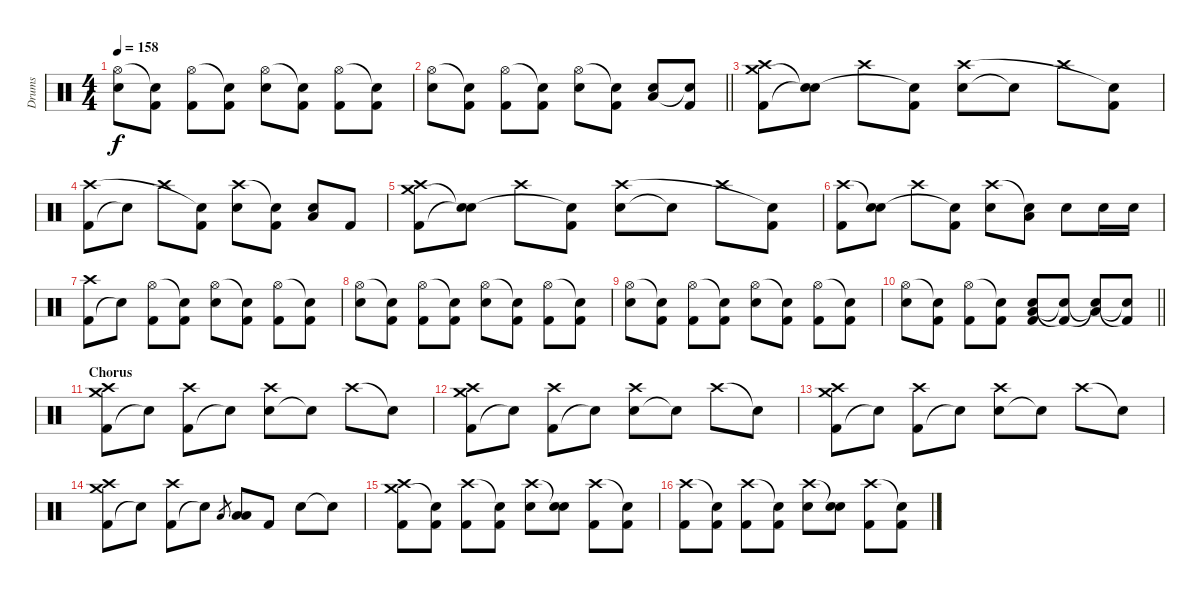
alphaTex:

\track ("Drums" "Drums") {instrument percussion}
\staff {score}
\articulation defaults
\ts (4 4)
\tempo 158
\clef neutral
\ks c
("Electric Snare (hit)" "Hi-Hat (open)").8{dy f} ("Kick (hit) 2" "Snare (hit)"{t}).8 ("Kick (hit) 2" "Hi-Hat (open)").8 ("Kick (hit) 2" "Snare (hit)"{t}).8 ("Electric Snare (hit)" "Hi-Hat (open)").8 ("Kick (hit) 2" "Snare (hit)"{t}).8 ("Kick (hit) 2" "Hi-Hat (open)").8 ("Kick (hit) 2" "Snare (hit)"{t}).8 |
\barLineRight lightlight
("Electric Snare (hit)" "Hi-Hat (open)").8 ("Kick (hit) 2" "Snare (hit)"{t}).8 ("Kick (hit) 2" "Hi-Hat (open)").8 ("Kick (hit) 2" "Snare (hit)"{t}).8 ("Electric Snare (hit)" "Hi-Hat (open)").8 ("Kick (hit) 2" "Snare (hit)"{t}).8 ("Electric Snare (hit)" "Low Floor Tom (hit)").8 ("Kick (hit) 2" "Snare (hit)"{t}).8 |
("Kick (hit) 2" "Crash medium (hit)" "Crash high (hit)").8 ("Snare (hit)"{t} "Snare (hit)"{t}).8 "Crash high (hit)".8 ("Kick (hit) 2" "Snare (hit)"{t}).8 ("Electric Snare (hit)" "Crash high (hit)").8 "Snare (hit)"{t}.8 "Crash high (hit)".8 ("Kick (hit) 2" "Snare (hit)"{t}).8 |
("Kick (hit) 2" "Crash high (hit)").8 "Snare (hit)"{t}.8 "Crash high (hit)".8 ("Kick (hit) 2" "Snare (hit)"{t}).8 ("Electric Snare (hit)" "Crash high (hit)").8 ("Kick (hit) 2" "Snare (hit)"{t}).8 ("Electric Snare (hit)" "Low Floor Tom (hit)").8 "Kick (hit) 2".8 |
("Kick (hit) 2" "Crash medium (hit)" "Crash high (hit)").8 ("Snare (hit)"{t} "Snare (hit)"{t}).8 "Crash high (hit)".8 ("Kick (hit) 2" "Snare (hit)"{t}).8 ("Electric Snare (hit)" "Crash high (hit)").8 "Snare (hit)"{t}.8 "Crash high (hit)".8 ("Kick (hit) 2" "Snare (hit)"{t}).8 |
("Kick (hit) 2" "Crash high (hit)").8 ("Electric Snare (hit)" "Snare (hit)"{t}).8 "Crash high (hit)".8 ("Kick (hit) 2" "Snare (hit)"{t}).8 ("Electric Snare (hit)" "Crash high (hit)").8 ("Low Tom (hit)" "Snare (hit)"{t}).8 "Electric Snare (hit)".8 "Electric Snare (hit)".16 "Electric Snare (hit)".16 |
("Kick (hit) 2" "Crash high (hit)").8 "Snare (hit)"{t}.8 ("Kick (hit) 2" "Hi-Hat (open)").8 ("Kick (hit) 2" "Snare (hit)"{t}).8 ("Electric Snare (hit)" "Hi-Hat (open)").8 ("Kick (hit) 2" "Snare (hit)"{t}).8 ("Kick (hit) 2" "Hi-Hat (open)").8 ("Kick (hit) 2" "Snare (hit)"{t}).8 |
("Electric Snare (hit)" "Hi-Hat (open)").8 ("Kick (hit) 2" "Snare (hit)"{t}).8 ("Kick (hit) 2" "Hi-Hat (open)").8 ("Kick (hit) 2" "Snare (hit)"{t}).8 ("Electric Snare (hit)" "Hi-Hat (open)").8 ("Kick (hit) 2" "Snare (hit)"{t}).8 ("Kick (hit) 2" "Hi-Hat (open)").8 ("Kick (hit) 2" "Snare (hit)"{t}).8 |
("Electric Snare (hit)" "Hi-Hat (open)").8 ("Kick (hit) 2" "Snare (hit)"{t}).8 ("Kick (hit) 2" "Hi-Hat (open)").8 ("Kick (hit) 2" "Snare (hit)"{t}).8 ("Electric Snare (hit)" "Hi-Hat (open)").8 ("Kick (hit) 2" "Snare (hit)"{t}).8 ("Kick (hit) 2" "Hi-Hat (open)").8 ("Kick (hit) 2" "Snare (hit)"{t}).8 |
\barLineRight lightlight
("Electric Snare (hit)" "Hi-Hat (open)").8 ("Kick (hit) 2" "Snare (hit)"{t}).8 ("Kick (hit) 2" "Hi-Hat (open)").8 ("Kick (hit) 2" "Snare (hit)"{t}).8 ("Electric Snare (hit)" "Low Floor Tom (hit)" "Kick (hit) 2").8 ("Kick (hit) 2"{t} "Snare (hit)"{t}).8 ("Electric Snare (hit)"{t} "Low Floor Tom (hit)"{t}).8 ("Kick (hit) 2"{t} "Snare (hit)"{t}).8 |
\section ("" "Chorus")
("Kick (hit) 2" "Crash medium (hit)" "Crash high (hit)").8 "Snare (hit)"{t}.8 ("Kick (hit) 2" "Crash high (hit)").8 "Snare (hit)"{t}.8 ("Electric Snare (hit)" "Crash high (hit)").8 "Snare (hit)"{t}.8 "Crash high (hit)".8 "Snare (hit)"{t}.8 |
("Kick (hit) 2" "Crash medium (hit)" "Crash high (hit)").8 "Snare (hit)"{t}.8 ("Kick (hit) 2" "Crash high (hit)").8 "Snare (hit)"{t}.8 ("Electric Snare (hit)" "Crash high (hit)").8 "Snare (hit)"{t}.8 "Crash high (hit)".8 "Snare (hit)"{t}.8 |
("Kick (hit) 2" "Crash medium (hit)" "Crash high (hit)").8 "Snare (hit)"{t}.8 ("Kick (hit) 2" "Crash high (hit)").8 "Snare (hit)"{t}.8 ("Electric Snare (hit)" "Crash high (hit)").8 "Snare (hit)"{t}.8 "Crash high (hit)".8 "Snare (hit)"{t}.8 |
("Kick (hit) 2" "Crash medium (hit)" "Crash high (hit)").8 "Snare (hit)"{t}.8 ("Kick (hit) 2" "Crash high (hit)").8 "Snare (hit)"{t}.8 "Low Tom (hit)".8{gr} ("Low Tom (hit)" "Low Floor Tom (hit)").8 "Kick (hit) 2".8 "Electric Snare (hit)".8 "Snare (hit)"{t}.8 |
("Kick (hit) 2" "Crash medium (hit)" "Crash high (hit)").8 ("Kick (hit) 2" "Snare (hit)"{t}).8 ("Kick (hit) 2" "Crash high (hit)").8 ("Kick (hit) 2" "Snare (hit)"{t}).8 ("Electric Snare (hit)" "Crash high (hit)").8 ("Electric Snare (hit)" "Snare (hit)"{t}).8 ("Kick (hit) 2" "Crash high (hit)").8 ("Kick (hit) 2" "Snare (hit)"{t}).8 |
("Kick (hit) 2" "Crash high (hit)").8 ("Kick (hit) 2" "Snare (hit)"{t}).8 ("Kick (hit) 2" "Crash high (hit)").8 ("Kick (hit) 2" "Snare (hit)"{t}).8 ("Electric Snare (hit)" "Crash high (hit)").8 ("Electric Snare (hit)" "Snare (hit)"{t}).8 ("Kick (hit) 2" "Crash high (hit)").8 ("Kick (hit) 2" "Snare (hit)"{t}).8
